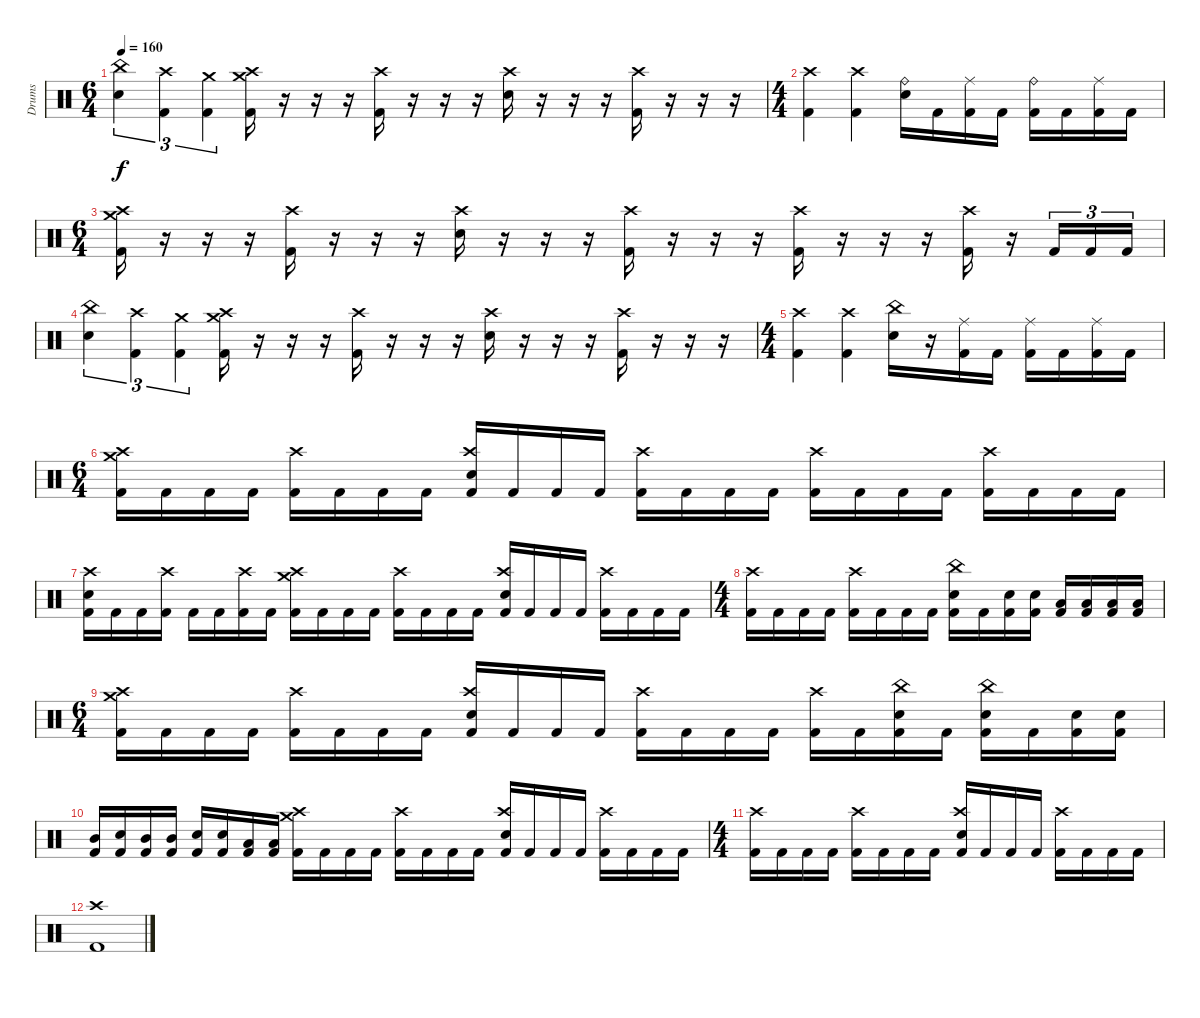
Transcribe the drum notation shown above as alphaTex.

\track ("Drums" "Drums") {instrument percussion}
\staff {score}
\articulation defaults
\ts (6 4)
\tempo 160
\clef neutral
\ks c
("China (hit)" "Electric Snare (hit)").4{tu (3 2) dy f} ("Crash high (hit)" "Kick (hit) 2").4{tu (3 2)} ("Crash medium (hit)" "Kick (hit) 2").4{tu (3 2)} ("Crash high (hit)" "Crash medium (hit)" "Kick (hit) 2").16 r.16 r.16 r.16 ("Crash high (hit)" "Kick (hit) 2").16 r.16 r.16 r.16 ("Crash high (hit)" "Electric Snare (hit)").16 r.16 r.16 r.16 ("Crash high (hit)" "Kick (hit) 2").16 r.16 r.16 r.16 |
\ts (4 4)
("Crash high (hit)" "Kick (hit) 2").4 ("Crash high (hit)" "Kick (hit) 2").4 ("Ride (bell)" "Electric Snare (hit)").16 "Kick (hit) 2".16 ("Ride (middle)" "Kick (hit) 2").16 "Kick (hit) 2".16 ("Ride (bell)" "Kick (hit) 2").16 "Kick (hit) 2".16 ("Ride (middle)" "Kick (hit) 2").16 "Kick (hit) 2".16 |
\ts (6 4)
("Crash high (hit)" "Crash medium (hit)" "Kick (hit) 2").16 r.16 r.16 r.16 ("Crash high (hit)" "Kick (hit) 2").16 r.16 r.16 r.16 ("Crash high (hit)" "Electric Snare (hit)").16 r.16 r.16 r.16 ("Crash high (hit)" "Kick (hit) 2").16 r.16 r.16 r.16 ("Crash high (hit)" "Kick (hit) 2").16 r.16 r.16 r.16 ("Crash high (hit)" "Kick (hit) 2").16 r.16 "Kick (hit) 2".16{tu (3 2)} "Kick (hit) 2".16{tu (3 2)} "Kick (hit) 2".16{tu (3 2)} |
("China (hit)" "Electric Snare (hit)").4{tu (3 2)} ("Crash high (hit)" "Kick (hit) 2").4{tu (3 2)} ("Crash medium (hit)" "Kick (hit) 2").4{tu (3 2)} ("Crash high (hit)" "Crash medium (hit)" "Kick (hit) 2").16 r.16 r.16 r.16 ("Crash high (hit)" "Kick (hit) 2").16 r.16 r.16 r.16 ("Crash high (hit)" "Electric Snare (hit)").16 r.16 r.16 r.16 ("Crash high (hit)" "Kick (hit) 2").16 r.16 r.16 r.16 |
\ts (4 4)
("Crash high (hit)" "Kick (hit) 2").4 ("Crash high (hit)" "Kick (hit) 2").4 ("China (hit)" "Electric Snare (hit)").16 r.16 ("Ride (middle)" "Kick (hit) 2").16 "Kick (hit) 2".16 ("Ride (middle)" "Kick (hit) 2").16 "Kick (hit) 2".16 ("Ride (middle)" "Kick (hit) 2").16 "Kick (hit) 2".16 |
\ts (6 4)
("Crash high (hit)" "Crash medium (hit)" "Kick (hit) 2").16 "Kick (hit) 2".16 "Kick (hit) 2".16 "Kick (hit) 2".16 ("Crash high (hit)" "Kick (hit) 2").16 "Kick (hit) 2".16 "Kick (hit) 2".16 "Kick (hit) 2".16 ("Crash high (hit)" "Electric Snare (hit)" "Kick (hit) 2").16 "Kick (hit) 2".16 "Kick (hit) 2".16 "Kick (hit) 2".16 ("Crash high (hit)" "Kick (hit) 2").16 "Kick (hit) 2".16 "Kick (hit) 2".16 "Kick (hit) 2".16 ("Crash high (hit)" "Kick (hit) 2").16 "Kick (hit) 2".16 "Kick (hit) 2".16 "Kick (hit) 2".16 ("Crash high (hit)" "Kick (hit) 2").16 "Kick (hit) 2".16 "Kick (hit) 2".16 "Kick (hit) 2".16 |
("Crash high (hit)" "Electric Snare (hit)" "Kick (hit) 2").16 "Kick (hit) 2".16 "Kick (hit) 2".16 ("Crash high (hit)" "Kick (hit) 2").16 "Kick (hit) 2".16 "Kick (hit) 2".16 ("Crash high (hit)" "Kick (hit) 2").16 "Kick (hit) 2".16 ("Crash high (hit)" "Crash medium (hit)" "Kick (hit) 2").16 "Kick (hit) 2".16 "Kick (hit) 2".16 "Kick (hit) 2".16 ("Crash high (hit)" "Kick (hit) 2").16 "Kick (hit) 2".16 "Kick (hit) 2".16 "Kick (hit) 2".16 ("Crash high (hit)" "Electric Snare (hit)" "Kick (hit) 2").16 "Kick (hit) 2".16 "Kick (hit) 2".16 "Kick (hit) 2".16 ("Crash high (hit)" "Kick (hit) 2").16 "Kick (hit) 2".16 "Kick (hit) 2".16 "Kick (hit) 2".16 |
\ts (4 4)
("Crash high (hit)" "Kick (hit) 2").16 "Kick (hit) 2".16 "Kick (hit) 2".16 "Kick (hit) 2".16 ("Crash high (hit)" "Kick (hit) 2").16 "Kick (hit) 2".16 "Kick (hit) 2".16 "Kick (hit) 2".16 ("China (hit)" "Electric Snare (hit)" "Kick (hit) 2").16 "Kick (hit) 2".16 ("Electric Snare (hit)" "Kick (hit) 2").16 ("Electric Snare (hit)" "Kick (hit) 2").16 ("Low Tom (hit)" "Kick (hit) 2").16 ("Low Tom (hit)" "Kick (hit) 2").16 ("Low Tom (hit)" "Kick (hit) 2").16 ("Low Tom (hit)" "Kick (hit) 2").16 |
\ts (6 4)
("Crash high (hit)" "Crash medium (hit)" "Kick (hit) 2").16 "Kick (hit) 2".16 "Kick (hit) 2".16 "Kick (hit) 2".16 ("Crash high (hit)" "Kick (hit) 2").16 "Kick (hit) 2".16 "Kick (hit) 2".16 "Kick (hit) 2".16 ("Crash high (hit)" "Electric Snare (hit)" "Kick (hit) 2").16 "Kick (hit) 2".16 "Kick (hit) 2".16 "Kick (hit) 2".16 ("Crash high (hit)" "Kick (hit) 2").16 "Kick (hit) 2".16 "Kick (hit) 2".16 "Kick (hit) 2".16 ("Crash high (hit)" "Kick (hit) 2").16 "Kick (hit) 2".16 ("China (hit)" "Electric Snare (hit)" "Kick (hit) 2").16 "Kick (hit) 2".16 ("China (hit)" "Electric Snare (hit)" "Kick (hit) 2").16 "Kick (hit) 2".16 ("Electric Snare (hit)" "Kick (hit) 2").16 ("Electric Snare (hit)" "Kick (hit) 2").16 |
("Mid Tom (hit)" "Kick (hit) 2").16 ("Electric Snare (hit)" "Kick (hit) 2").16 ("Mid Tom (hit)" "Kick (hit) 2").16 ("Mid Tom (hit)" "Kick (hit) 2").16 ("Electric Snare (hit)" "Kick (hit) 2").16 ("Electric Snare (hit)" "Kick (hit) 2").16 ("Low Tom (hit)" "Kick (hit) 2").16 ("Low Tom (hit)" "Kick (hit) 2").16 ("Crash high (hit)" "Crash medium (hit)" "Kick (hit) 2").16 "Kick (hit) 2".16 "Kick (hit) 2".16 "Kick (hit) 2".16 ("Crash high (hit)" "Kick (hit) 2").16 "Kick (hit) 2".16 "Kick (hit) 2".16 "Kick (hit) 2".16 ("Crash high (hit)" "Electric Snare (hit)" "Kick (hit) 2").16 "Kick (hit) 2".16 "Kick (hit) 2".16 "Kick (hit) 2".16 ("Crash high (hit)" "Kick (hit) 2").16 "Kick (hit) 2".16 "Kick (hit) 2".16 "Kick (hit) 2".16 |
\ts (4 4)
("Crash high (hit)" "Kick (hit) 2").16 "Kick (hit) 2".16 "Kick (hit) 2".16 "Kick (hit) 2".16 ("Crash high (hit)" "Kick (hit) 2").16 "Kick (hit) 2".16 "Kick (hit) 2".16 "Kick (hit) 2".16 ("Crash high (hit)" "Electric Snare (hit)" "Kick (hit) 2").16 "Kick (hit) 2".16 "Kick (hit) 2".16 "Kick (hit) 2".16 ("Crash high (hit)" "Kick (hit) 2").16 "Kick (hit) 2".16 "Kick (hit) 2".16 "Kick (hit) 2".16 |
("Crash high (hit)" "Kick (hit) 2").1
